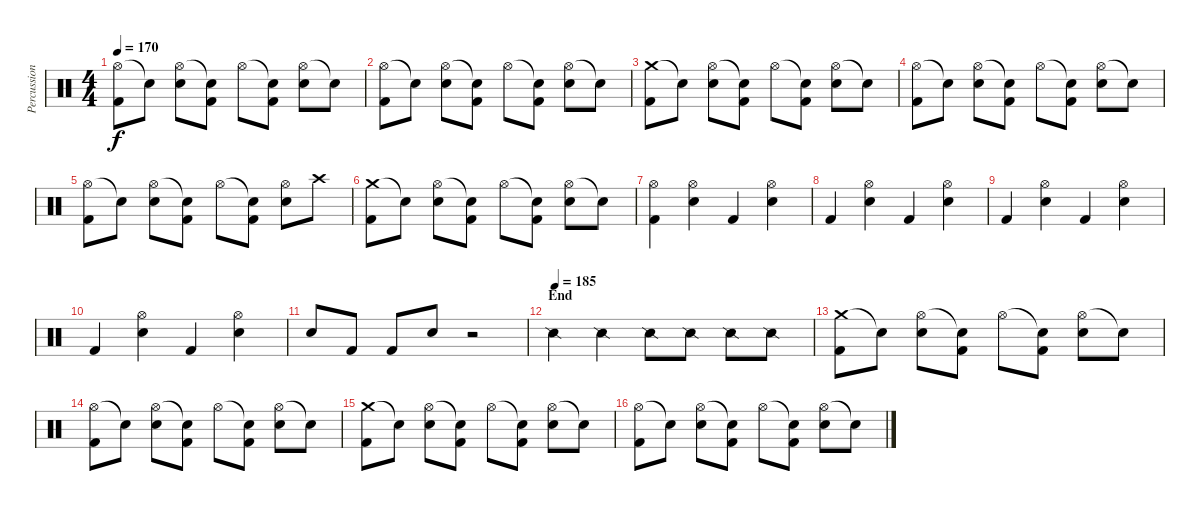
\track ("Percussions" "Percussion") {instrument percussion}
\staff {score}
\articulation defaults
\ts (4 4)
\tempo 170
\clef neutral
\ks c
("Hi-Hat (open)" "Kick (hit) 2").8{dy f} "Snare (hit)"{t}.8 ("Hi-Hat (open)" "Snare (hit) 2").8 ("Snare (hit)"{t} "Kick (hit) 2").8 "Hi-Hat (open)".8 ("Snare (hit)"{t} "Kick (hit) 2").8 ("Hi-Hat (open)" "Snare (hit) 2").8 "Snare (hit)"{t}.8 |
("Hi-Hat (open)" "Kick (hit) 2").8 "Snare (hit)"{t}.8 ("Hi-Hat (open)" "Snare (hit) 2").8 ("Snare (hit)"{t} "Kick (hit) 2").8 "Hi-Hat (open)".8 ("Snare (hit)"{t} "Kick (hit) 2").8 ("Hi-Hat (open)" "Snare (hit) 2").8 "Snare (hit)"{t}.8 |
("Crash medium (hit)" "Kick (hit) 2").8 "Snare (hit)"{t}.8 ("Hi-Hat (open)" "Snare (hit) 2").8 ("Snare (hit)"{t} "Kick (hit) 2").8 "Hi-Hat (open)".8 ("Snare (hit)"{t} "Kick (hit) 2").8 ("Hi-Hat (open)" "Snare (hit) 2").8 "Snare (hit)"{t}.8 |
("Hi-Hat (open)" "Kick (hit) 2").8 "Snare (hit)"{t}.8 ("Hi-Hat (open)" "Snare (hit) 2").8 ("Snare (hit)"{t} "Kick (hit) 2").8 "Hi-Hat (open)".8 ("Snare (hit)"{t} "Kick (hit) 2").8 ("Hi-Hat (open)" "Snare (hit) 2").8 "Snare (hit)"{t}.8 |
("Hi-Hat (open)" "Kick (hit) 2").8 "Snare (hit)"{t}.8 ("Hi-Hat (open)" "Snare (hit) 2").8 ("Snare (hit)"{t} "Kick (hit) 2").8 "Hi-Hat (open)".8 ("Snare (hit)"{t} "Kick (hit) 2").8 ("Hi-Hat (open)" "Snare (hit) 2").8 "Crash high (hit)".8 |
("Crash medium (hit)" "Kick (hit) 2").8 "Snare (hit)"{t}.8 ("Hi-Hat (open)" "Snare (hit) 2").8 ("Snare (hit)"{t} "Kick (hit) 2").8 "Hi-Hat (open)".8 ("Snare (hit)"{t} "Kick (hit) 2").8 ("Hi-Hat (open)" "Snare (hit) 2").8 "Snare (hit)"{t}.8 |
("Hi-Hat (open)" "Kick (hit) 2").4 ("Hi-Hat (open)" "Snare (hit) 2").4 "Kick (hit) 2".4 ("Hi-Hat (open)" "Snare (hit) 2").4 |
"Kick (hit) 2".4 ("Hi-Hat (open)" "Snare (hit) 2").4 "Kick (hit) 2".4 ("Hi-Hat (open)" "Snare (hit) 2").4 |
"Kick (hit) 2".4 ("Hi-Hat (open)" "Snare (hit) 2").4 "Kick (hit) 2".4 ("Hi-Hat (open)" "Snare (hit) 2").4 |
"Kick (hit) 2".4 ("Hi-Hat (open)" "Snare (hit) 2").4 "Kick (hit) 2".4 ("Hi-Hat (open)" "Snare (hit) 2").4 |
"Snare (hit) 2".8 "Kick (hit) 2".8 "Kick (hit) 2".8 "Snare (hit) 2".8 r.2 |
\section ("" "End")
\tempo (185)
"Snare (side stick) 2".4 "Snare (side stick) 2".4 "Snare (side stick) 2".8 "Snare (side stick) 2".8 "Snare (side stick) 2".8 "Snare (side stick) 2".8 |
("Crash medium (hit)" "Kick (hit) 2").8 "Snare (hit)"{t}.8 ("Hi-Hat (open)" "Snare (hit) 2").8 ("Snare (hit)"{t} "Kick (hit) 2").8 "Hi-Hat (open)".8 ("Snare (hit)"{t} "Kick (hit) 2").8 ("Hi-Hat (open)" "Snare (hit) 2").8 "Snare (hit)"{t}.8 |
("Hi-Hat (open)" "Kick (hit) 2").8 "Snare (hit)"{t}.8 ("Hi-Hat (open)" "Snare (hit) 2").8 ("Snare (hit)"{t} "Kick (hit) 2").8 "Hi-Hat (open)".8 ("Snare (hit)"{t} "Kick (hit) 2").8 ("Hi-Hat (open)" "Snare (hit) 2").8 "Snare (hit)"{t}.8 |
("Crash medium (hit)" "Kick (hit) 2").8 "Snare (hit)"{t}.8 ("Hi-Hat (open)" "Snare (hit) 2").8 ("Snare (hit)"{t} "Kick (hit) 2").8 "Hi-Hat (open)".8 ("Snare (hit)"{t} "Kick (hit) 2").8 ("Hi-Hat (open)" "Snare (hit) 2").8 "Snare (hit)"{t}.8 |
("Hi-Hat (open)" "Kick (hit) 2").8 "Snare (hit)"{t}.8 ("Hi-Hat (open)" "Snare (hit) 2").8 ("Snare (hit)"{t} "Kick (hit) 2").8 "Hi-Hat (open)".8 ("Snare (hit)"{t} "Kick (hit) 2").8 ("Hi-Hat (open)" "Snare (hit) 2").8 "Snare (hit)"{t}.8
